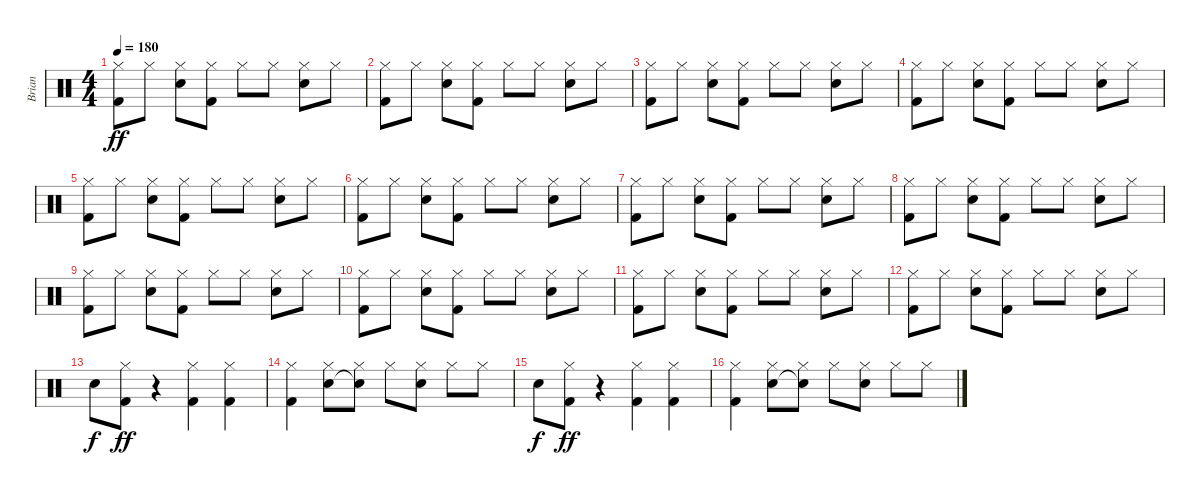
\track ("Brian" "Brian") {instrument percussion}
\staff {score}
\articulation defaults
\ts (4 4)
\tempo 180
\clef neutral
\ks c
("Hi-Hat (closed)" "Kick (hit) 2").8{dy ff} "Hi-Hat (closed)".8 ("Hi-Hat (closed)" "Snare (hit) 2").8 ("Hi-Hat (closed)" "Kick (hit) 2").8 "Hi-Hat (closed)".8 "Hi-Hat (closed)".8 ("Hi-Hat (closed)" "Snare (hit) 2").8 "Hi-Hat (closed)".8 |
("Hi-Hat (closed)" "Kick (hit) 2").8 "Hi-Hat (closed)".8 ("Hi-Hat (closed)" "Snare (hit) 2").8 ("Hi-Hat (closed)" "Kick (hit) 2").8 "Hi-Hat (closed)".8 "Hi-Hat (closed)".8 ("Hi-Hat (closed)" "Snare (hit) 2").8 "Hi-Hat (closed)".8 |
("Hi-Hat (closed)" "Kick (hit) 2").8 "Hi-Hat (closed)".8 ("Hi-Hat (closed)" "Snare (hit) 2").8 ("Hi-Hat (closed)" "Kick (hit) 2").8 "Hi-Hat (closed)".8 "Hi-Hat (closed)".8 ("Hi-Hat (closed)" "Snare (hit) 2").8 "Hi-Hat (closed)".8 |
("Hi-Hat (closed)" "Kick (hit) 2").8 "Hi-Hat (closed)".8 ("Hi-Hat (closed)" "Snare (hit) 2").8 ("Hi-Hat (closed)" "Kick (hit) 2").8 "Hi-Hat (closed)".8 "Hi-Hat (closed)".8 ("Hi-Hat (closed)" "Snare (hit) 2").8 "Hi-Hat (closed)".8 |
("Hi-Hat (closed)" "Kick (hit) 2").8 "Hi-Hat (closed)".8 ("Hi-Hat (closed)" "Snare (hit) 2").8 ("Hi-Hat (closed)" "Kick (hit) 2").8 "Hi-Hat (closed)".8 "Hi-Hat (closed)".8 ("Hi-Hat (closed)" "Snare (hit) 2").8 "Hi-Hat (closed)".8 |
("Hi-Hat (closed)" "Kick (hit) 2").8 "Hi-Hat (closed)".8 ("Hi-Hat (closed)" "Snare (hit) 2").8 ("Hi-Hat (closed)" "Kick (hit) 2").8 "Hi-Hat (closed)".8 "Hi-Hat (closed)".8 ("Hi-Hat (closed)" "Snare (hit) 2").8 "Hi-Hat (closed)".8 |
("Hi-Hat (closed)" "Kick (hit) 2").8 "Hi-Hat (closed)".8 ("Hi-Hat (closed)" "Snare (hit) 2").8 ("Hi-Hat (closed)" "Kick (hit) 2").8 "Hi-Hat (closed)".8 "Hi-Hat (closed)".8 ("Hi-Hat (closed)" "Snare (hit) 2").8 "Hi-Hat (closed)".8 |
("Hi-Hat (closed)" "Kick (hit) 2").8 "Hi-Hat (closed)".8 ("Hi-Hat (closed)" "Snare (hit) 2").8 ("Hi-Hat (closed)" "Kick (hit) 2").8 "Hi-Hat (closed)".8 "Hi-Hat (closed)".8 ("Hi-Hat (closed)" "Snare (hit) 2").8 "Hi-Hat (closed)".8 |
("Hi-Hat (closed)" "Kick (hit) 2").8 "Hi-Hat (closed)".8 ("Hi-Hat (closed)" "Snare (hit) 2").8 ("Hi-Hat (closed)" "Kick (hit) 2").8 "Hi-Hat (closed)".8 "Hi-Hat (closed)".8 ("Hi-Hat (closed)" "Snare (hit) 2").8 "Hi-Hat (closed)".8 |
("Hi-Hat (closed)" "Kick (hit) 2").8 "Hi-Hat (closed)".8 ("Hi-Hat (closed)" "Snare (hit) 2").8 ("Hi-Hat (closed)" "Kick (hit) 2").8 "Hi-Hat (closed)".8 "Hi-Hat (closed)".8 ("Hi-Hat (closed)" "Snare (hit) 2").8 "Hi-Hat (closed)".8 |
("Hi-Hat (closed)" "Kick (hit) 2").8 "Hi-Hat (closed)".8 ("Hi-Hat (closed)" "Snare (hit) 2").8 ("Hi-Hat (closed)" "Kick (hit) 2").8 "Hi-Hat (closed)".8 "Hi-Hat (closed)".8 ("Hi-Hat (closed)" "Snare (hit) 2").8 "Hi-Hat (closed)".8 |
("Hi-Hat (closed)" "Kick (hit) 2").8 "Hi-Hat (closed)".8 ("Hi-Hat (closed)" "Snare (hit) 2").8 ("Hi-Hat (closed)" "Kick (hit) 2").8 "Hi-Hat (closed)".8 "Hi-Hat (closed)".8 ("Hi-Hat (closed)" "Snare (hit) 2").8 "Hi-Hat (closed)".8 |
"Snare (hit) 2".8{dy f} ("Hi-Hat (closed)" "Kick (hit) 2").8{dy ff} r.4 ("Hi-Hat (closed)" "Kick (hit) 2").4 ("Hi-Hat (closed)" "Kick (hit) 2").4 |
("Hi-Hat (closed)" "Kick (hit) 2").4 ("Hi-Hat (closed)" "Snare (hit) 2").8 ("Hi-Hat (closed)" "Electric Snare (hit)"{t}).8 "Hi-Hat (closed)".8 ("Hi-Hat (closed)" "Snare (hit) 2").8 "Hi-Hat (closed)".8 "Hi-Hat (closed)".8 |
"Snare (hit) 2".8{dy f} ("Hi-Hat (closed)" "Kick (hit) 2").8{dy ff} r.4 ("Hi-Hat (closed)" "Kick (hit) 2").4 ("Hi-Hat (closed)" "Kick (hit) 2").4 |
("Hi-Hat (closed)" "Kick (hit) 2").4 ("Hi-Hat (closed)" "Snare (hit) 2").8 ("Hi-Hat (closed)" "Electric Snare (hit)"{t}).8 "Hi-Hat (closed)".8 ("Hi-Hat (closed)" "Snare (hit) 2").8 "Hi-Hat (closed)".8 "Hi-Hat (closed)".8
